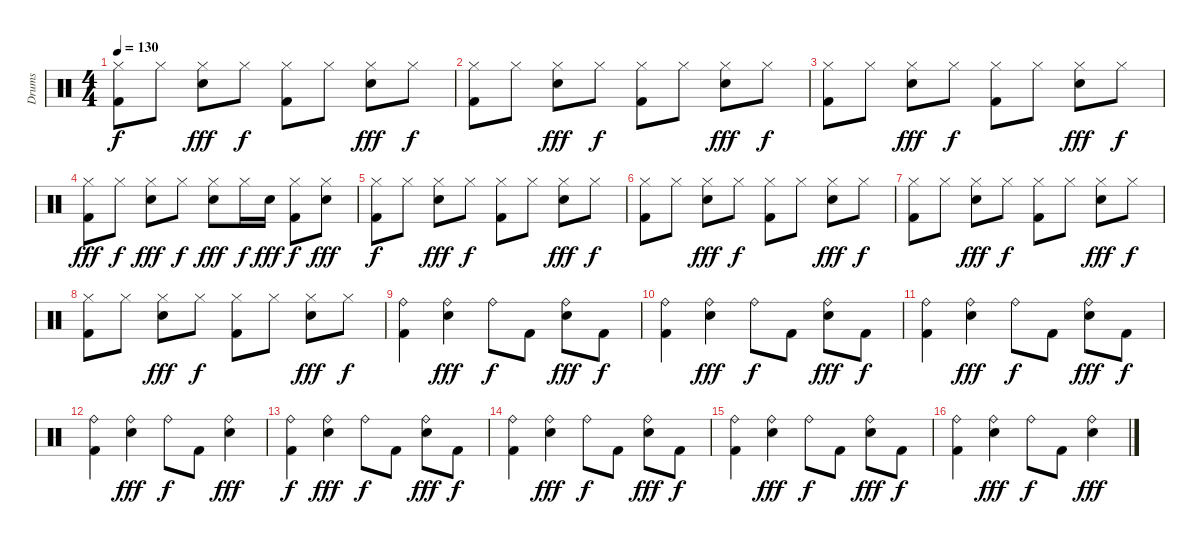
\track ("Drums" "Drums") {instrument percussion}
\staff {score}
\articulation defaults
\ts (4 4)
\tempo 130
\clef neutral
\ks c
("Hi-Hat (closed)" "Kick (hit) 2").8{dy f} "Hi-Hat (closed)".8 ("Hi-Hat (closed)" "Snare (hit) 2").8{dy fff} "Hi-Hat (closed)".8{dy f} ("Hi-Hat (closed)" "Kick (hit) 2").8 "Hi-Hat (closed)".8 ("Hi-Hat (closed)" "Snare (hit) 2").8{dy fff} "Hi-Hat (closed)".8{dy f} |
("Hi-Hat (closed)" "Kick (hit) 2").8 "Hi-Hat (closed)".8 ("Hi-Hat (closed)" "Snare (hit) 2").8{dy fff} "Hi-Hat (closed)".8{dy f} ("Hi-Hat (closed)" "Kick (hit) 2").8 "Hi-Hat (closed)".8 ("Hi-Hat (closed)" "Snare (hit) 2").8{dy fff} "Hi-Hat (closed)".8{dy f} |
("Hi-Hat (closed)" "Kick (hit) 2").8 "Hi-Hat (closed)".8 ("Hi-Hat (closed)" "Snare (hit) 2").8{dy fff} "Hi-Hat (closed)".8{dy f} ("Hi-Hat (closed)" "Kick (hit) 2").8 "Hi-Hat (closed)".8 ("Hi-Hat (closed)" "Snare (hit) 2").8{dy fff} "Hi-Hat (closed)".8{dy f} |
("Hi-Hat (closed)" "Kick (hit) 2").8{dy fff} "Hi-Hat (closed)".8{dy f} ("Hi-Hat (closed)" "Snare (hit) 2").8{dy fff} "Hi-Hat (closed)".8{dy f} ("Hi-Hat (closed)" "Snare (hit) 2").8{dy fff} "Hi-Hat (closed)".16{dy f} "Snare (hit) 2".16{dy fff} ("Hi-Hat (closed)" "Kick (hit) 2").8{dy f} ("Hi-Hat (closed)" "Snare (hit) 2").8{dy fff} |
("Hi-Hat (closed)" "Kick (hit) 2").8{dy f} "Hi-Hat (closed)".8 ("Hi-Hat (closed)" "Snare (hit) 2").8{dy fff} "Hi-Hat (closed)".8{dy f} ("Hi-Hat (closed)" "Kick (hit) 2").8 "Hi-Hat (closed)".8 ("Hi-Hat (closed)" "Snare (hit) 2").8{dy fff} "Hi-Hat (closed)".8{dy f} |
("Hi-Hat (closed)" "Kick (hit) 2").8 "Hi-Hat (closed)".8 ("Hi-Hat (closed)" "Snare (hit) 2").8{dy fff} "Hi-Hat (closed)".8{dy f} ("Hi-Hat (closed)" "Kick (hit) 2").8 "Hi-Hat (closed)".8 ("Hi-Hat (closed)" "Snare (hit) 2").8{dy fff} "Hi-Hat (closed)".8{dy f} |
("Hi-Hat (closed)" "Kick (hit) 2").8 "Hi-Hat (closed)".8 ("Hi-Hat (closed)" "Snare (hit) 2").8{dy fff} "Hi-Hat (closed)".8{dy f} ("Hi-Hat (closed)" "Kick (hit) 2").8 "Hi-Hat (closed)".8 ("Hi-Hat (closed)" "Snare (hit) 2").8{dy fff} "Hi-Hat (closed)".8{dy f} |
("Hi-Hat (closed)" "Kick (hit) 2").8 "Hi-Hat (closed)".8 ("Hi-Hat (closed)" "Snare (hit) 2").8{dy fff} "Hi-Hat (closed)".8{dy f} ("Hi-Hat (closed)" "Kick (hit) 2").8 "Hi-Hat (closed)".8 ("Hi-Hat (closed)" "Snare (hit) 2").8{dy fff} "Hi-Hat (closed)".8{dy f} |
("Ride (bell)" "Kick (hit) 2").4 ("Ride (bell)" "Snare (hit) 2").4{dy fff} "Ride (bell)".8{dy f} "Kick (hit) 2".8 ("Ride (bell)" "Snare (hit) 2").8{dy fff} "Kick (hit) 2".8{dy f} |
("Ride (bell)" "Kick (hit) 2").4 ("Ride (bell)" "Snare (hit) 2").4{dy fff} "Ride (bell)".8{dy f} "Kick (hit) 2".8 ("Ride (bell)" "Snare (hit) 2").8{dy fff} "Kick (hit) 2".8{dy f} |
("Ride (bell)" "Kick (hit) 2").4 ("Ride (bell)" "Snare (hit) 2").4{dy fff} "Ride (bell)".8{dy f} "Kick (hit) 2".8 ("Ride (bell)" "Snare (hit) 2").8{dy fff} "Kick (hit) 2".8{dy f} |
("Ride (bell)" "Kick (hit) 2").4 ("Ride (bell)" "Snare (hit) 2").4{dy fff} "Ride (bell)".8{dy f} "Kick (hit) 2".8 ("Ride (bell)" "Snare (hit) 2").4{dy fff} |
("Ride (bell)" "Kick (hit) 2").4{dy f} ("Ride (bell)" "Snare (hit) 2").4{dy fff} "Ride (bell)".8{dy f} "Kick (hit) 2".8 ("Ride (bell)" "Snare (hit) 2").8{dy fff} "Kick (hit) 2".8{dy f} |
("Ride (bell)" "Kick (hit) 2").4 ("Ride (bell)" "Snare (hit) 2").4{dy fff} "Ride (bell)".8{dy f} "Kick (hit) 2".8 ("Ride (bell)" "Snare (hit) 2").8{dy fff} "Kick (hit) 2".8{dy f} |
("Ride (bell)" "Kick (hit) 2").4 ("Ride (bell)" "Snare (hit) 2").4{dy fff} "Ride (bell)".8{dy f} "Kick (hit) 2".8 ("Ride (bell)" "Snare (hit) 2").8{dy fff} "Kick (hit) 2".8{dy f} |
("Ride (bell)" "Kick (hit) 2").4 ("Ride (bell)" "Snare (hit) 2").4{dy fff} "Ride (bell)".8{dy f} "Kick (hit) 2".8 ("Ride (bell)" "Snare (hit) 2").4{dy fff}
